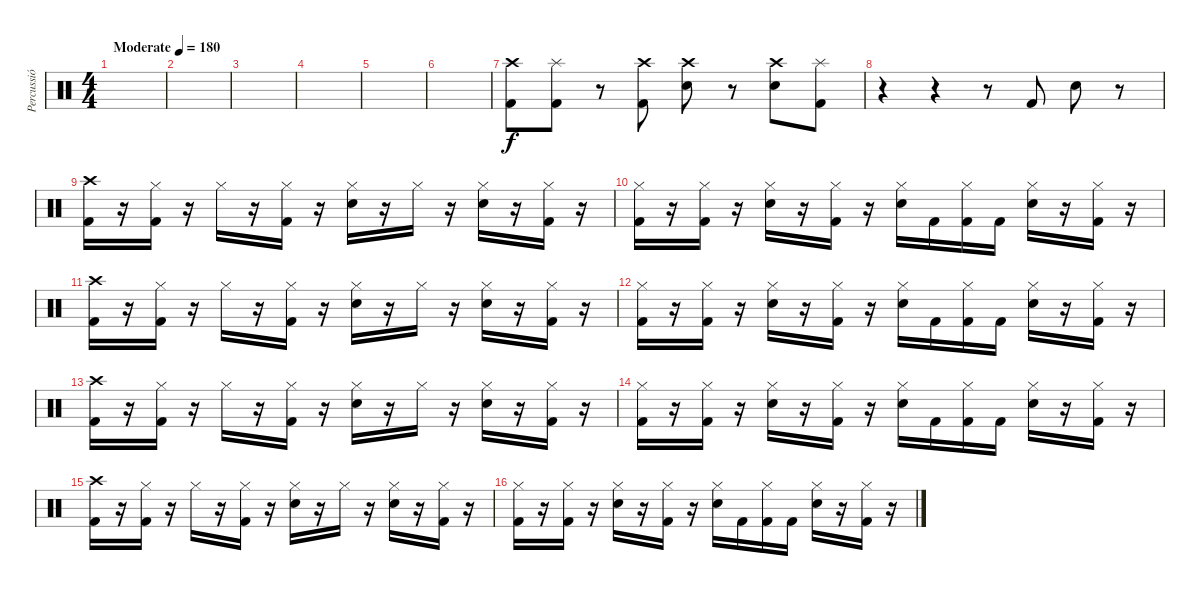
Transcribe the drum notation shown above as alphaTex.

\track ("Percussió" "Percussió") {instrument percussion}
\staff {score}
\articulation defaults
\ts (4 4)
\tempo (180 "Moderate")
\clef neutral
\ks c
|
|
|
|
|
|
("Crash high (hit)" "Kick (hit) 2").8 ("Splash (hit)" "Kick (hit) 2").8 r.8 ("Crash high (hit)" "Kick (hit) 2").8 ("Crash high (hit)" "Electric Snare (hit)").8 r.8 ("Crash high (hit)" "Electric Snare (hit)").8 ("Splash (hit)" "Kick (hit) 2").8 |
r.4 r.4 r.8 "Kick (hit) 2".8 "Electric Snare (hit)".8 r.8 |
("Crash high (hit)" "Kick (hit) 2").16 r.16 ("Hi-Hat (closed)" "Kick (hit) 2").16 r.16 "Hi-Hat (closed)".16 r.16 ("Hi-Hat (closed)" "Kick (hit) 2").16 r.16 ("Hi-Hat (closed)" "Electric Snare (hit)").16 r.16 "Hi-Hat (closed)".16 r.16 ("Hi-Hat (closed)" "Electric Snare (hit)").16 r.16 ("Hi-Hat (closed)" "Kick (hit) 2").16 r.16 |
("Hi-Hat (closed)" "Kick (hit) 2").16 r.16 ("Hi-Hat (closed)" "Kick (hit) 2").16 r.16 ("Hi-Hat (closed)" "Electric Snare (hit)").16 r.16 ("Hi-Hat (closed)" "Kick (hit) 2").16 r.16 ("Hi-Hat (closed)" "Electric Snare (hit)").16 "Kick (hit) 2".16 ("Hi-Hat (closed)" "Kick (hit) 2").16 "Kick (hit) 2".16 ("Hi-Hat (closed)" "Electric Snare (hit)").16 r.16 ("Hi-Hat (closed)" "Kick (hit) 2").16 r.16 |
("Crash high (hit)" "Kick (hit) 2").16 r.16 ("Hi-Hat (closed)" "Kick (hit) 2").16 r.16 "Hi-Hat (closed)".16 r.16 ("Hi-Hat (closed)" "Kick (hit) 2").16 r.16 ("Hi-Hat (closed)" "Electric Snare (hit)").16 r.16 "Hi-Hat (closed)".16 r.16 ("Hi-Hat (closed)" "Electric Snare (hit)").16 r.16 ("Hi-Hat (closed)" "Kick (hit) 2").16 r.16 |
("Hi-Hat (closed)" "Kick (hit) 2").16 r.16 ("Hi-Hat (closed)" "Kick (hit) 2").16 r.16 ("Hi-Hat (closed)" "Electric Snare (hit)").16 r.16 ("Hi-Hat (closed)" "Kick (hit) 2").16 r.16 ("Hi-Hat (closed)" "Electric Snare (hit)").16 "Kick (hit) 2".16 ("Hi-Hat (closed)" "Kick (hit) 2").16 "Kick (hit) 2".16 ("Hi-Hat (closed)" "Electric Snare (hit)").16 r.16 ("Hi-Hat (closed)" "Kick (hit) 2").16 r.16 |
("Crash high (hit)" "Kick (hit) 2").16 r.16 ("Hi-Hat (closed)" "Kick (hit) 2").16 r.16 "Hi-Hat (closed)".16 r.16 ("Hi-Hat (closed)" "Kick (hit) 2").16 r.16 ("Hi-Hat (closed)" "Electric Snare (hit)").16 r.16 "Hi-Hat (closed)".16 r.16 ("Hi-Hat (closed)" "Electric Snare (hit)").16 r.16 ("Hi-Hat (closed)" "Kick (hit) 2").16 r.16 |
("Hi-Hat (closed)" "Kick (hit) 2").16 r.16 ("Hi-Hat (closed)" "Kick (hit) 2").16 r.16 ("Hi-Hat (closed)" "Electric Snare (hit)").16 r.16 ("Hi-Hat (closed)" "Kick (hit) 2").16 r.16 ("Hi-Hat (closed)" "Electric Snare (hit)").16 "Kick (hit) 2".16 ("Hi-Hat (closed)" "Kick (hit) 2").16 "Kick (hit) 2".16 ("Hi-Hat (closed)" "Electric Snare (hit)").16 r.16 ("Hi-Hat (closed)" "Kick (hit) 2").16 r.16 |
("Crash high (hit)" "Kick (hit) 2").16 r.16 ("Hi-Hat (closed)" "Kick (hit) 2").16 r.16 "Hi-Hat (closed)".16 r.16 ("Hi-Hat (closed)" "Kick (hit) 2").16 r.16 ("Hi-Hat (closed)" "Electric Snare (hit)").16 r.16 "Hi-Hat (closed)".16 r.16 ("Hi-Hat (closed)" "Electric Snare (hit)").16 r.16 ("Hi-Hat (closed)" "Kick (hit) 2").16 r.16 |
("Hi-Hat (closed)" "Kick (hit) 2").16 r.16 ("Hi-Hat (closed)" "Kick (hit) 2").16 r.16 ("Hi-Hat (closed)" "Electric Snare (hit)").16 r.16 ("Hi-Hat (closed)" "Kick (hit) 2").16 r.16 ("Hi-Hat (closed)" "Electric Snare (hit)").16 "Kick (hit) 2".16 ("Hi-Hat (closed)" "Kick (hit) 2").16 "Kick (hit) 2".16 ("Hi-Hat (closed)" "Electric Snare (hit)").16 r.16 ("Hi-Hat (closed)" "Kick (hit) 2").16 r.16
